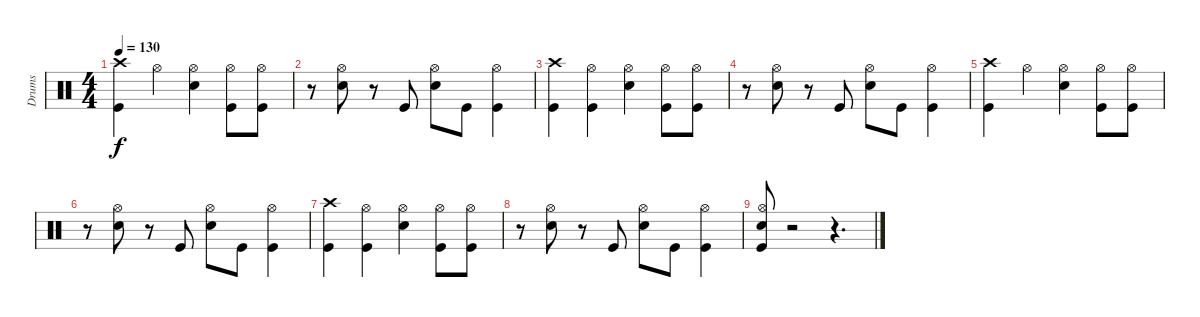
\track ("Drums" "Drums") {instrument percussion}
\staff {score}
\articulation defaults
\ts (4 4)
\tempo 130
\clef neutral
\ks c
("Crash high (hit)" "Kick (hit)").4{dy f} "Hi-Hat (open)".4 ("Hi-Hat (open)" "Snare (hit) 2").4 ("Hi-Hat (open)" "Kick (hit)").8 ("Hi-Hat (open)" "Kick (hit)").8 |
r.8 ("Hi-Hat (open)" "Snare (hit) 2").8 r.8 "Kick (hit)".8 ("Hi-Hat (open)" "Snare (hit) 2").8 "Kick (hit)".8 ("Hi-Hat (open)" "Kick (hit)").4 |
("Crash high (hit)" "Kick (hit)").4 ("Hi-Hat (open)" "Kick (hit)").4 ("Hi-Hat (open)" "Snare (hit) 2").4 ("Hi-Hat (open)" "Kick (hit)").8 ("Hi-Hat (open)" "Kick (hit)").8 |
r.8 ("Hi-Hat (open)" "Snare (hit) 2").8 r.8 "Kick (hit)".8 ("Hi-Hat (open)" "Snare (hit) 2").8 "Kick (hit)".8 ("Hi-Hat (open)" "Kick (hit)").4 |
("Crash high (hit)" "Kick (hit)").4 "Hi-Hat (open)".4 ("Hi-Hat (open)" "Snare (hit) 2").4 ("Hi-Hat (open)" "Kick (hit)").8 ("Hi-Hat (open)" "Kick (hit)").8 |
r.8 ("Hi-Hat (open)" "Snare (hit) 2").8 r.8 "Kick (hit)".8 ("Hi-Hat (open)" "Snare (hit) 2").8 "Kick (hit)".8 ("Hi-Hat (open)" "Kick (hit)").4 |
("Crash high (hit)" "Kick (hit)").4 ("Hi-Hat (open)" "Kick (hit)").4 ("Hi-Hat (open)" "Snare (hit) 2").4 ("Hi-Hat (open)" "Kick (hit)").8 ("Hi-Hat (open)" "Kick (hit)").8 |
r.8 ("Hi-Hat (open)" "Snare (hit) 2").8 r.8 "Kick (hit)".8 ("Hi-Hat (open)" "Snare (hit) 2").8 "Kick (hit)".8 ("Hi-Hat (open)" "Kick (hit)").4 |
("Hi-Hat (open)" "Snare (hit) 2" "Kick (hit)").8 r.2 r.4{d}
